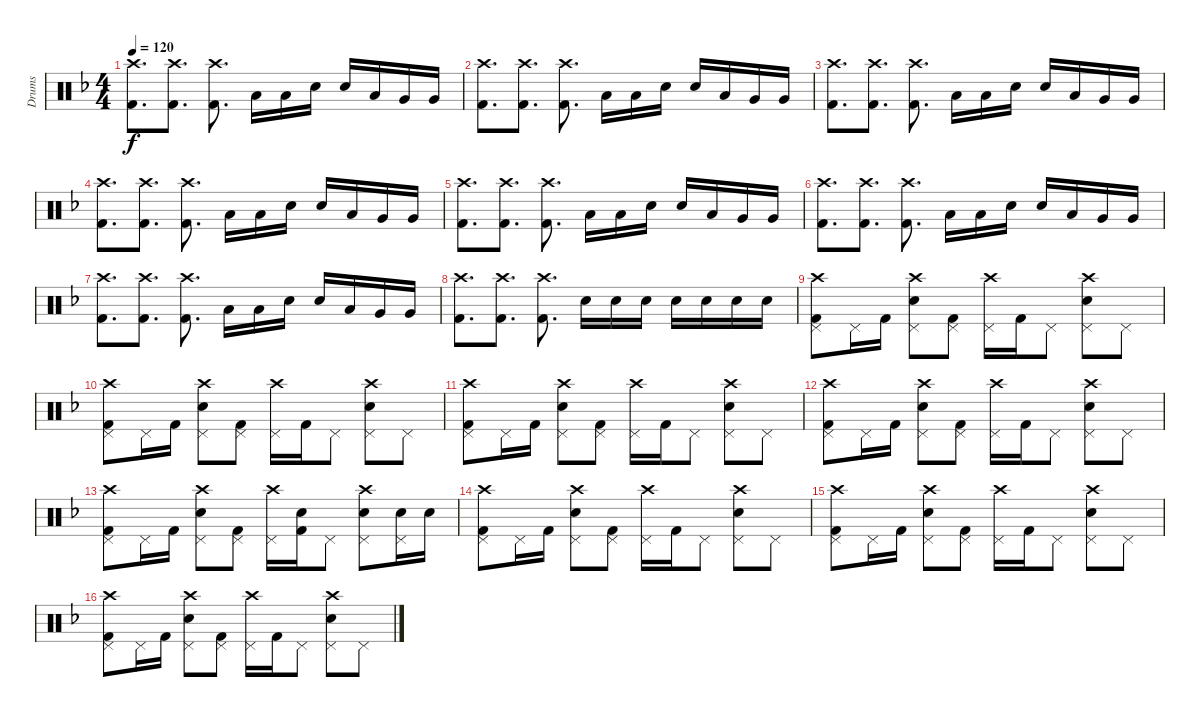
\track ("Drums" "Drums") {instrument percussion}
\staff {score}
\articulation defaults
\ts (4 4)
\tempo 120
\clef neutral
\ks f
("Crash high (hit)" "Kick (hit) 2").8{d dy f} ("Crash high (hit)" "Kick (hit) 2").8{d} ("Crash high (hit)" "Kick (hit) 2").8{d} "Low Tom (hit)".16 "Low Tom (hit)".16 "Snare (hit) 2".16 "Snare (hit) 2".16 "Low Tom (hit)".16 "Very Low Tom (hit)".16 "Very Low Tom (hit)".16 |
("Crash high (hit)" "Kick (hit) 2").8{d} ("Crash high (hit)" "Kick (hit) 2").8{d} ("Crash high (hit)" "Kick (hit) 2").8{d} "Low Tom (hit)".16 "Low Tom (hit)".16 "Snare (hit) 2".16 "Snare (hit) 2".16 "Low Tom (hit)".16 "Very Low Tom (hit)".16 "Very Low Tom (hit)".16 |
("Crash high (hit)" "Kick (hit) 2").8{d} ("Crash high (hit)" "Kick (hit) 2").8{d} ("Crash high (hit)" "Kick (hit) 2").8{d} "Low Tom (hit)".16 "Low Tom (hit)".16 "Snare (hit) 2".16 "Snare (hit) 2".16 "Low Tom (hit)".16 "Very Low Tom (hit)".16 "Very Low Tom (hit)".16 |
("Crash high (hit)" "Kick (hit) 2").8{d} ("Crash high (hit)" "Kick (hit) 2").8{d} ("Crash high (hit)" "Kick (hit) 2").8{d} "Low Tom (hit)".16 "Low Tom (hit)".16 "Snare (hit) 2".16 "Snare (hit) 2".16 "Low Tom (hit)".16 "Very Low Tom (hit)".16 "Very Low Tom (hit)".16 |
("Crash high (hit)" "Kick (hit) 2").8{d} ("Crash high (hit)" "Kick (hit) 2").8{d} ("Crash high (hit)" "Kick (hit) 2").8{d} "Low Tom (hit)".16 "Low Tom (hit)".16 "Snare (hit) 2".16 "Snare (hit) 2".16 "Low Tom (hit)".16 "Very Low Tom (hit)".16 "Very Low Tom (hit)".16 |
("Crash high (hit)" "Kick (hit) 2").8{d} ("Crash high (hit)" "Kick (hit) 2").8{d} ("Crash high (hit)" "Kick (hit) 2").8{d} "Low Tom (hit)".16 "Low Tom (hit)".16 "Snare (hit) 2".16 "Snare (hit) 2".16 "Low Tom (hit)".16 "Very Low Tom (hit)".16 "Very Low Tom (hit)".16 |
("Crash high (hit)" "Kick (hit) 2").8{d} ("Crash high (hit)" "Kick (hit) 2").8{d} ("Crash high (hit)" "Kick (hit) 2").8{d} "Low Tom (hit)".16 "Low Tom (hit)".16 "Snare (hit) 2".16 "Snare (hit) 2".16 "Low Tom (hit)".16 "Very Low Tom (hit)".16 "Very Low Tom (hit)".16 |
("Crash high (hit)" "Kick (hit) 2").8{d} ("Crash high (hit)" "Kick (hit) 2").8{d} ("Crash high (hit)" "Kick (hit) 2").8{d} "Snare (hit) 2".16 "Snare (hit) 2".16 "Snare (hit) 2".16 "Snare (hit) 2".16 "Snare (hit) 2".16 "Snare (hit) 2".16 "Snare (hit) 2".16 |
("Crash high (hit)" "Kick (hit) 2" "Pedal Hi-Hat (hit)").8 "Pedal Hi-Hat (hit)".16 "Kick (hit) 2".16 ("Crash high (hit)" "Snare (hit) 2" "Pedal Hi-Hat (hit)").8 ("Kick (hit) 2" "Pedal Hi-Hat (hit)").8 ("Crash high (hit)" "Pedal Hi-Hat (hit)").16 "Kick (hit) 2".16 "Pedal Hi-Hat (hit)".8 ("Crash high (hit)" "Snare (hit) 2" "Pedal Hi-Hat (hit)").8 "Pedal Hi-Hat (hit)".8 |
("Crash high (hit)" "Kick (hit) 2" "Pedal Hi-Hat (hit)").8 "Pedal Hi-Hat (hit)".16 "Kick (hit) 2".16 ("Crash high (hit)" "Snare (hit) 2" "Pedal Hi-Hat (hit)").8 ("Kick (hit) 2" "Pedal Hi-Hat (hit)").8 ("Crash high (hit)" "Pedal Hi-Hat (hit)").16 "Kick (hit) 2".16 "Pedal Hi-Hat (hit)".8 ("Crash high (hit)" "Snare (hit) 2" "Pedal Hi-Hat (hit)").8 "Pedal Hi-Hat (hit)".8 |
("Crash high (hit)" "Kick (hit) 2" "Pedal Hi-Hat (hit)").8 "Pedal Hi-Hat (hit)".16 "Kick (hit) 2".16 ("Crash high (hit)" "Snare (hit) 2" "Pedal Hi-Hat (hit)").8 ("Kick (hit) 2" "Pedal Hi-Hat (hit)").8 ("Crash high (hit)" "Pedal Hi-Hat (hit)").16 "Kick (hit) 2".16 "Pedal Hi-Hat (hit)".8 ("Crash high (hit)" "Snare (hit) 2" "Pedal Hi-Hat (hit)").8 "Pedal Hi-Hat (hit)".8 |
("Crash high (hit)" "Kick (hit) 2" "Pedal Hi-Hat (hit)").8 "Pedal Hi-Hat (hit)".16 "Kick (hit) 2".16 ("Crash high (hit)" "Snare (hit) 2" "Pedal Hi-Hat (hit)").8 ("Kick (hit) 2" "Pedal Hi-Hat (hit)").8 ("Crash high (hit)" "Pedal Hi-Hat (hit)").16 "Kick (hit) 2".16 "Pedal Hi-Hat (hit)".8 ("Crash high (hit)" "Snare (hit) 2" "Pedal Hi-Hat (hit)").8 "Pedal Hi-Hat (hit)".8 |
("Crash high (hit)" "Kick (hit) 2" "Pedal Hi-Hat (hit)").8 "Pedal Hi-Hat (hit)".16 "Kick (hit) 2".16 ("Crash high (hit)" "Snare (hit) 2" "Pedal Hi-Hat (hit)").8 ("Kick (hit) 2" "Pedal Hi-Hat (hit)").8 ("Crash high (hit)" "Pedal Hi-Hat (hit)").16 ("Snare (hit) 2" "Kick (hit) 2").16 "Pedal Hi-Hat (hit)".8 ("Crash high (hit)" "Snare (hit) 2" "Pedal Hi-Hat (hit)").8 ("Snare (hit) 2" "Pedal Hi-Hat (hit)").16 "Snare (hit) 2".16 |
("Crash high (hit)" "Kick (hit) 2" "Pedal Hi-Hat (hit)").8 "Pedal Hi-Hat (hit)".16 "Kick (hit) 2".16 ("Crash high (hit)" "Snare (hit) 2" "Pedal Hi-Hat (hit)").8 ("Kick (hit) 2" "Pedal Hi-Hat (hit)").8 ("Crash high (hit)" "Pedal Hi-Hat (hit)").16 "Kick (hit) 2".16 "Pedal Hi-Hat (hit)".8 ("Crash high (hit)" "Snare (hit) 2" "Pedal Hi-Hat (hit)").8 "Pedal Hi-Hat (hit)".8 |
("Crash high (hit)" "Kick (hit) 2" "Pedal Hi-Hat (hit)").8 "Pedal Hi-Hat (hit)".16 "Kick (hit) 2".16 ("Crash high (hit)" "Snare (hit) 2" "Pedal Hi-Hat (hit)").8 ("Kick (hit) 2" "Pedal Hi-Hat (hit)").8 ("Crash high (hit)" "Pedal Hi-Hat (hit)").16 "Kick (hit) 2".16 "Pedal Hi-Hat (hit)".8 ("Crash high (hit)" "Snare (hit) 2" "Pedal Hi-Hat (hit)").8 "Pedal Hi-Hat (hit)".8 |
("Crash high (hit)" "Kick (hit) 2" "Pedal Hi-Hat (hit)").8 "Pedal Hi-Hat (hit)".16 "Kick (hit) 2".16 ("Crash high (hit)" "Snare (hit) 2" "Pedal Hi-Hat (hit)").8 ("Kick (hit) 2" "Pedal Hi-Hat (hit)").8 ("Crash high (hit)" "Pedal Hi-Hat (hit)").16 "Kick (hit) 2".16 "Pedal Hi-Hat (hit)".8 ("Crash high (hit)" "Snare (hit) 2" "Pedal Hi-Hat (hit)").8 "Pedal Hi-Hat (hit)".8
